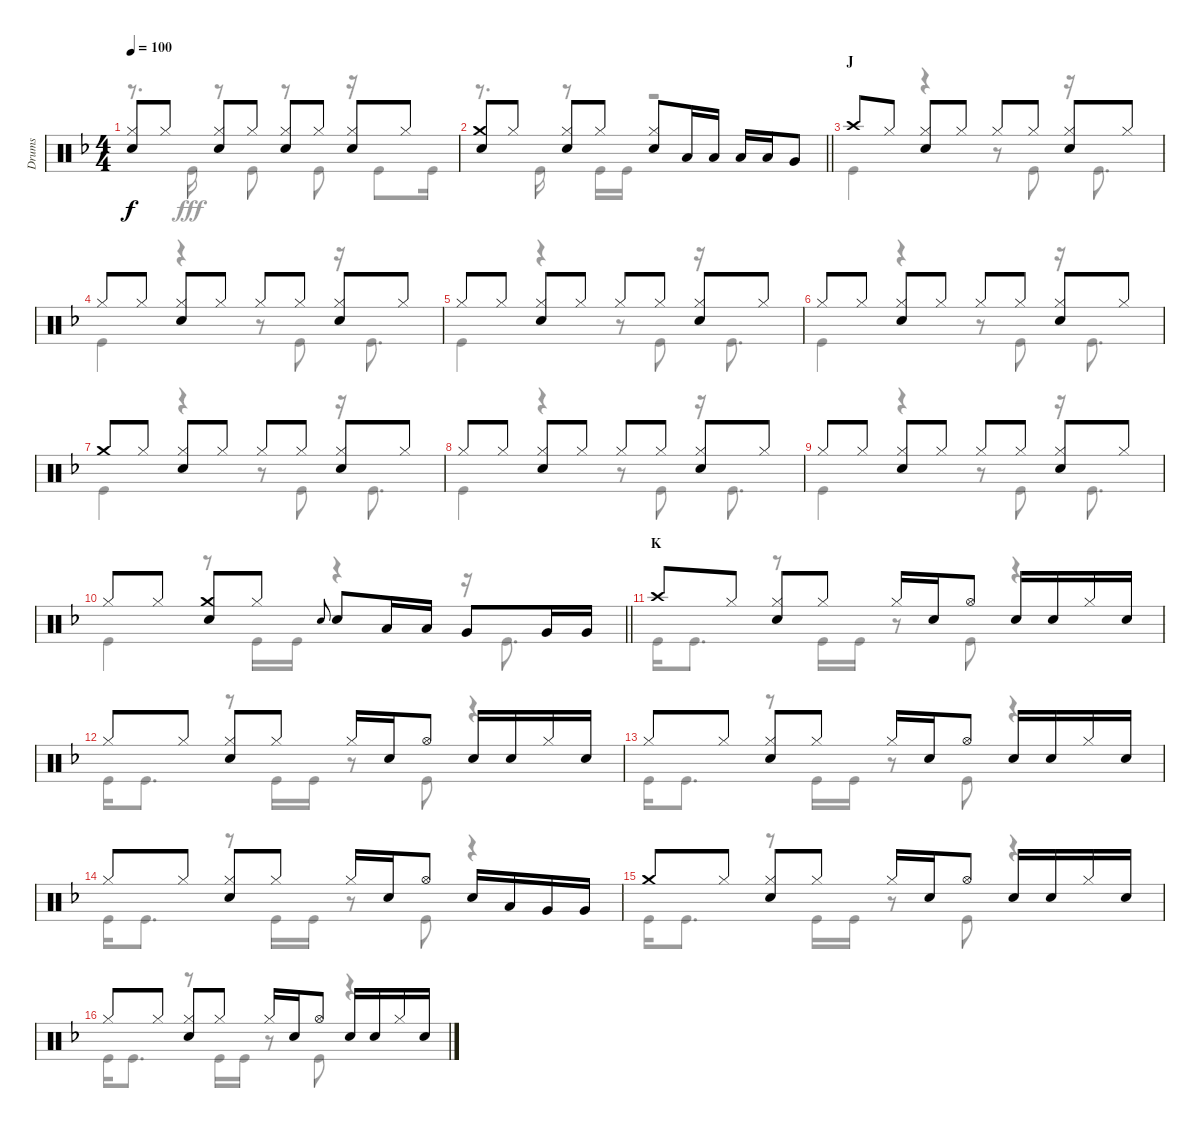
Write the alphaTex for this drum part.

\track ("Drums" "Drums") {instrument percussion}
\staff {score}
\articulation defaults
\voice
\ts (4 4)
\tempo 100
\clef neutral
\ks f
("Hi-Hat (closed)" "Snare (hit) 2").8{dy f} "Hi-Hat (closed)".8 ("Hi-Hat (closed)" "Snare (hit) 2").8 "Hi-Hat (closed)".8 ("Hi-Hat (closed)" "Snare (hit) 2").8 "Hi-Hat (closed)".8 ("Hi-Hat (closed)" "Snare (hit) 2").8 "Hi-Hat (closed)".8 |
\barLineRight lightlight
("Crash medium (hit)" "Snare (hit) 2").8 "Hi-Hat (closed)".8 ("Hi-Hat (closed)" "Snare (hit) 2").8 "Hi-Hat (closed)".8 ("Hi-Hat (closed)" "Snare (hit) 2").8 "Low Tom (hit)".16 "Low Tom (hit)".16 "Low Tom (hit)".16 "Low Tom (hit)".16 "Very Low Tom (hit)".8 |
\section ("" "J")
"Crash high (hit)".8 "Hi-Hat (closed)".8 ("Hi-Hat (closed)" "Snare (hit) 2").8 "Hi-Hat (closed)".8 "Hi-Hat (closed)".8 "Hi-Hat (closed)".8 ("Hi-Hat (closed)" "Snare (hit) 2").8 "Hi-Hat (closed)".8 |
"Hi-Hat (closed)".8 "Hi-Hat (closed)".8 ("Hi-Hat (closed)" "Snare (hit) 2").8 "Hi-Hat (closed)".8 "Hi-Hat (closed)".8 "Hi-Hat (closed)".8 ("Hi-Hat (closed)" "Snare (hit) 2").8 "Hi-Hat (closed)".8 |
"Hi-Hat (closed)".8 "Hi-Hat (closed)".8 ("Hi-Hat (closed)" "Snare (hit) 2").8 "Hi-Hat (closed)".8 "Hi-Hat (closed)".8 "Hi-Hat (closed)".8 ("Hi-Hat (closed)" "Snare (hit) 2").8 "Hi-Hat (closed)".8 |
"Hi-Hat (closed)".8 "Hi-Hat (closed)".8 ("Hi-Hat (closed)" "Snare (hit) 2").8 "Hi-Hat (closed)".8 "Hi-Hat (closed)".8 "Hi-Hat (closed)".8 ("Hi-Hat (closed)" "Snare (hit) 2").8 "Hi-Hat (closed)".8 |
"Crash medium (hit)".8 "Hi-Hat (closed)".8 ("Hi-Hat (closed)" "Snare (hit) 2").8 "Hi-Hat (closed)".8 "Hi-Hat (closed)".8 "Hi-Hat (closed)".8 ("Hi-Hat (closed)" "Snare (hit) 2").8 "Hi-Hat (closed)".8 |
"Hi-Hat (closed)".8 "Hi-Hat (closed)".8 ("Hi-Hat (closed)" "Snare (hit) 2").8 "Hi-Hat (closed)".8 "Hi-Hat (closed)".8 "Hi-Hat (closed)".8 ("Hi-Hat (closed)" "Snare (hit) 2").8 "Hi-Hat (closed)".8 |
"Hi-Hat (closed)".8 "Hi-Hat (closed)".8 ("Hi-Hat (closed)" "Snare (hit) 2").8 "Hi-Hat (closed)".8 "Hi-Hat (closed)".8 "Hi-Hat (closed)".8 ("Hi-Hat (closed)" "Snare (hit) 2").8 "Hi-Hat (closed)".8 |
\barLineRight lightlight "Hi-Hat (closed)".8 "Hi-Hat (closed)".8
("Crash medium (hit)" "Snare (hit) 2").8 "Hi-Hat (closed)".8 "Snare (hit) 2".8{gr onbeat} "Snare (hit) 2".8 "Low Tom (hit)".16 "Low Tom (hit)".16 "Very Low Tom (hit)".8 "Very Low Tom (hit)".16 "Very Low Tom (hit)".16 |
\section ("" "K")
"Crash high (hit)".8 "Hi-Hat (closed)".8 ("Hi-Hat (closed)" "Snare (hit) 2").8 "Hi-Hat (closed)".8 "Hi-Hat (closed)".16 "Snare (hit) 2".16 "Hi-Hat (open)".8 "Snare (hit) 2".16 "Snare (hit) 2".16 "Hi-Hat (closed)".16 "Snare (hit) 2".16 |
"Hi-Hat (closed)".8 "Hi-Hat (closed)".8 ("Hi-Hat (closed)" "Snare (hit) 2").8 "Hi-Hat (closed)".8 "Hi-Hat (closed)".16 "Snare (hit) 2".16 "Hi-Hat (open)".8 "Snare (hit) 2".16 "Snare (hit) 2".16 "Hi-Hat (closed)".16 "Snare (hit) 2".16 |
"Hi-Hat (closed)".8 "Hi-Hat (closed)".8 ("Hi-Hat (closed)" "Snare (hit) 2").8 "Hi-Hat (closed)".8 "Hi-Hat (closed)".16 "Snare (hit) 2".16 "Hi-Hat (open)".8 "Snare (hit) 2".16 "Snare (hit) 2".16 "Hi-Hat (closed)".16 "Snare (hit) 2".16 |
"Hi-Hat (closed)".8 "Hi-Hat (closed)".8 ("Hi-Hat (closed)" "Snare (hit) 2").8 "Hi-Hat (closed)".8 "Hi-Hat (closed)".16 "Snare (hit) 2".16 "Hi-Hat (open)".8 "Snare (hit) 2".16 "Low Tom (hit)".16 "Very Low Tom (hit)".16 "Very Low Tom (hit)".16 |
"Crash medium (hit)".8 "Hi-Hat (closed)".8 ("Hi-Hat (closed)" "Snare (hit) 2").8 "Hi-Hat (closed)".8 "Hi-Hat (closed)".16 "Snare (hit) 2".16 "Hi-Hat (open)".8 "Snare (hit) 2".16 "Snare (hit) 2".16 "Hi-Hat (closed)".16 "Snare (hit) 2".16 |
"Hi-Hat (closed)".8 "Hi-Hat (closed)".8 ("Hi-Hat (closed)" "Snare (hit) 2").8 "Hi-Hat (closed)".8 "Hi-Hat (closed)".16 "Snare (hit) 2".16 "Hi-Hat (open)".8 "Snare (hit) 2".16 "Snare (hit) 2".16 "Hi-Hat (closed)".16 "Snare (hit) 2".16
\voice
\clef neutral
\ottava regular
\simile none
\ks f
r.8{d dy fff} "Kick (hit)".16 r.8 "Kick (hit)".8 r.8 "Kick (hit)".8 r.16 "Kick (hit)".8 "Kick (hit)".16 |
\barLineRight lightlight
r.8{d} "Kick (hit)".16 r.8 "Kick (hit)".16 "Kick (hit)".16 r.2 |
"Kick (hit)".4 r.4 r.8 "Kick (hit)".8 r.16 "Kick (hit)".8{d} |
"Kick (hit)".4 r.4 r.8 "Kick (hit)".8 r.16 "Kick (hit)".8{d} |
"Kick (hit)".4 r.4 r.8 "Kick (hit)".8 r.16 "Kick (hit)".8{d} |
"Kick (hit)".4 r.4 r.8 "Kick (hit)".8 r.16 "Kick (hit)".8{d} |
"Kick (hit)".4 r.4 r.8 "Kick (hit)".8 r.16 "Kick (hit)".8{d} |
"Kick (hit)".4 r.4 r.8 "Kick (hit)".8 r.16 "Kick (hit)".8{d} |
"Kick (hit)".4 r.4 r.8 "Kick (hit)".8 r.16 "Kick (hit)".8{d} |
\barLineRight lightlight "Kick (hit)".4
r.8 "Kick (hit)".16 "Kick (hit)".16 r.4 r.16 "Kick (hit)".8{d} |
"Kick (hit)".16 "Kick (hit)".8{d} r.8 "Kick (hit)".16 "Kick (hit)".16 r.8 "Kick (hit)".8 r.4 |
"Kick (hit)".16 "Kick (hit)".8{d} r.8 "Kick (hit)".16 "Kick (hit)".16 r.8 "Kick (hit)".8 r.4 |
"Kick (hit)".16 "Kick (hit)".8{d} r.8 "Kick (hit)".16 "Kick (hit)".16 r.8 "Kick (hit)".8 r.4 |
"Kick (hit)".16 "Kick (hit)".8{d} r.8 "Kick (hit)".16 "Kick (hit)".16 r.8 "Kick (hit)".8 r.4 |
"Kick (hit)".16 "Kick (hit)".8{d} r.8 "Kick (hit)".16 "Kick (hit)".16 r.8 "Kick (hit)".8 r.4 |
"Kick (hit)".16 "Kick (hit)".8{d} r.8 "Kick (hit)".16 "Kick (hit)".16 r.8 "Kick (hit)".8 r.4
